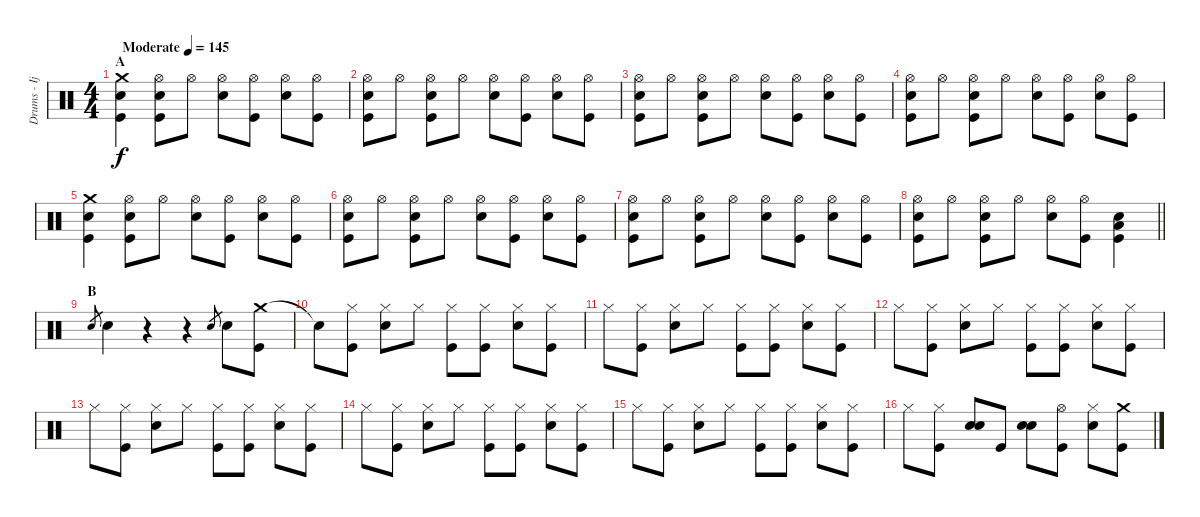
\track ("Drums - Ijichi" "Drums - Ij") {instrument percussion}
\staff {score}
\articulation defaults
\ts (4 4)
\section ("" "A")
\tempo (145 "Moderate")
\clef neutral
\ks c
("Crash medium (hit)" "Electric Snare (hit)" "Kick (hit)").4{dy f} ("Hi-Hat (open)" "Electric Snare (hit)" "Kick (hit)").8 "Hi-Hat (open)".8 ("Hi-Hat (open)" "Electric Snare (hit)").8 ("Hi-Hat (open)" "Kick (hit)").8 ("Hi-Hat (open)" "Electric Snare (hit)").8 ("Hi-Hat (open)" "Kick (hit)").8 |
("Hi-Hat (open)" "Electric Snare (hit)" "Kick (hit)").8 "Hi-Hat (open)".8 ("Hi-Hat (open)" "Electric Snare (hit)" "Kick (hit)").8 "Hi-Hat (open)".8 ("Hi-Hat (open)" "Electric Snare (hit)").8 ("Hi-Hat (open)" "Kick (hit)").8 ("Hi-Hat (open)" "Electric Snare (hit)").8 ("Hi-Hat (open)" "Kick (hit)").8 |
("Hi-Hat (open)" "Electric Snare (hit)" "Kick (hit)").8 "Hi-Hat (open)".8 ("Hi-Hat (open)" "Electric Snare (hit)" "Kick (hit)").8 "Hi-Hat (open)".8 ("Hi-Hat (open)" "Electric Snare (hit)").8 ("Hi-Hat (open)" "Kick (hit)").8 ("Hi-Hat (open)" "Electric Snare (hit)").8 ("Hi-Hat (open)" "Kick (hit)").8 |
("Hi-Hat (open)" "Electric Snare (hit)" "Kick (hit)").8 "Hi-Hat (open)".8 ("Hi-Hat (open)" "Electric Snare (hit)" "Kick (hit)").8 "Hi-Hat (open)".8 ("Hi-Hat (open)" "Electric Snare (hit)").8 ("Hi-Hat (open)" "Kick (hit)").8 ("Hi-Hat (open)" "Electric Snare (hit)").8 ("Hi-Hat (open)" "Kick (hit)").8 |
("Crash medium (hit)" "Electric Snare (hit)" "Kick (hit)").4 ("Hi-Hat (open)" "Electric Snare (hit)" "Kick (hit)").8 "Hi-Hat (open)".8 ("Hi-Hat (open)" "Electric Snare (hit)").8 ("Hi-Hat (open)" "Kick (hit)").8 ("Hi-Hat (open)" "Electric Snare (hit)").8 ("Hi-Hat (open)" "Kick (hit)").8 |
("Hi-Hat (open)" "Electric Snare (hit)" "Kick (hit)").8 "Hi-Hat (open)".8 ("Hi-Hat (open)" "Electric Snare (hit)" "Kick (hit)").8 "Hi-Hat (open)".8 ("Hi-Hat (open)" "Electric Snare (hit)").8 ("Hi-Hat (open)" "Kick (hit)").8 ("Hi-Hat (open)" "Electric Snare (hit)").8 ("Hi-Hat (open)" "Kick (hit)").8 |
("Hi-Hat (open)" "Electric Snare (hit)" "Kick (hit)").8 "Hi-Hat (open)".8 ("Hi-Hat (open)" "Electric Snare (hit)" "Kick (hit)").8 "Hi-Hat (open)".8 ("Hi-Hat (open)" "Electric Snare (hit)").8 ("Hi-Hat (open)" "Kick (hit)").8 ("Hi-Hat (open)" "Electric Snare (hit)").8 ("Hi-Hat (open)" "Kick (hit)").8 |
\barLineRight lightlight
("Hi-Hat (open)" "Electric Snare (hit)" "Kick (hit)").8 "Hi-Hat (open)".8 ("Hi-Hat (open)" "Electric Snare (hit)" "Kick (hit)").8 "Hi-Hat (open)".8 ("Hi-Hat (open)" "Electric Snare (hit)").8 ("Hi-Hat (open)" "Kick (hit)").8 ("Electric Snare (hit)" "Low Tom (hit)" "Kick (hit)").4 |
\section ("" "B")
"Electric Snare (hit)".8{gr} "Electric Snare (hit)".4 r.4 r.4 "Electric Snare (hit)".8{gr} "Electric Snare (hit)".8 ("Crash medium (hit)" "Kick (hit)").8 |
"Snare (hit)"{t}.8 ("Hi-Hat (closed)" "Kick (hit)").8 ("Hi-Hat (closed)" "Electric Snare (hit)").8 "Hi-Hat (closed)".8 ("Hi-Hat (closed)" "Kick (hit)").8 ("Hi-Hat (closed)" "Kick (hit)").8 ("Hi-Hat (closed)" "Electric Snare (hit)").8 ("Hi-Hat (closed)" "Kick (hit)").8 |
"Hi-Hat (closed)".8 ("Hi-Hat (closed)" "Kick (hit)").8 ("Hi-Hat (closed)" "Electric Snare (hit)").8 "Hi-Hat (closed)".8 ("Hi-Hat (closed)" "Kick (hit)").8 ("Hi-Hat (closed)" "Kick (hit)").8 ("Hi-Hat (closed)" "Electric Snare (hit)").8 ("Hi-Hat (closed)" "Kick (hit)").8 |
"Hi-Hat (closed)".8 ("Hi-Hat (closed)" "Kick (hit)").8 ("Hi-Hat (closed)" "Electric Snare (hit)").8 "Hi-Hat (closed)".8 ("Hi-Hat (closed)" "Kick (hit)").8 ("Hi-Hat (closed)" "Kick (hit)").8 ("Hi-Hat (closed)" "Electric Snare (hit)").8 ("Hi-Hat (closed)" "Kick (hit)").8 |
"Hi-Hat (closed)".8 ("Hi-Hat (closed)" "Kick (hit)").8 ("Hi-Hat (closed)" "Electric Snare (hit)").8 "Hi-Hat (closed)".8 ("Hi-Hat (closed)" "Kick (hit)").8 ("Hi-Hat (closed)" "Kick (hit)").8 ("Hi-Hat (closed)" "Electric Snare (hit)").8 ("Hi-Hat (closed)" "Kick (hit)").8 |
"Hi-Hat (closed)".8 ("Hi-Hat (closed)" "Kick (hit)").8 ("Hi-Hat (closed)" "Electric Snare (hit)").8 "Hi-Hat (closed)".8 ("Hi-Hat (closed)" "Kick (hit)").8 ("Hi-Hat (closed)" "Kick (hit)").8 ("Hi-Hat (closed)" "Electric Snare (hit)").8 ("Hi-Hat (closed)" "Kick (hit)").8 |
"Hi-Hat (closed)".8 ("Hi-Hat (closed)" "Kick (hit)").8 ("Hi-Hat (closed)" "Electric Snare (hit)").8 "Hi-Hat (closed)".8 ("Hi-Hat (closed)" "Kick (hit)").8 ("Hi-Hat (closed)" "Kick (hit)").8 ("Hi-Hat (closed)" "Electric Snare (hit)").8 ("Hi-Hat (closed)" "Kick (hit)").8 |
"Hi-Hat (closed)".8 ("Hi-Hat (closed)" "Kick (hit)").8 ("Electric Snare (hit)" "Electric Snare (hit)").8 "Kick (hit)".8 ("Electric Snare (hit)" "Electric Snare (hit)").8 ("Hi-Hat (open)" "Kick (hit)").8 ("Hi-Hat (closed)" "Electric Snare (hit)").8 ("Crash medium (hit)" "Kick (hit)").8
